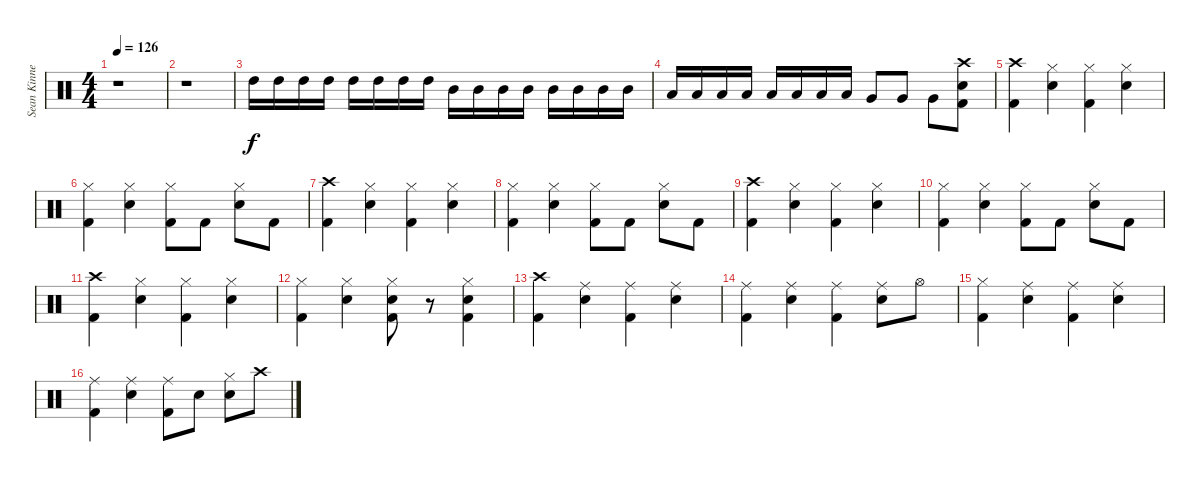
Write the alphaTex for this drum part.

\track ("Sean Kinney - Drums" "Sean Kinne") {instrument percussion}
\staff {score}
\articulation defaults
\ts (4 4)
\tempo 126
\clef neutral
\ks c
r.1{dy f} |
r.1 |
"High Tom (hit)".16 "High Tom (hit)".16 "High Tom (hit)".16 "High Tom (hit)".16 "High Tom (hit)".16 "High Tom (hit)".16 "High Tom (hit)".16 "High Tom (hit)".16 "Mid Tom (hit)".16 "Mid Tom (hit)".16 "Mid Tom (hit)".16 "Mid Tom (hit)".16 "Mid Tom (hit)".16 "Mid Tom (hit)".16 "Mid Tom (hit)".16 "Mid Tom (hit)".16 |
"Low Tom (hit)".16 "Low Tom (hit)".16 "Low Tom (hit)".16 "Low Tom (hit)".16 "Low Tom (hit)".16 "Low Tom (hit)".16 "Low Tom (hit)".16 "Low Tom (hit)".16 "Very Low Tom (hit)".8 "Very Low Tom (hit)".8 "Very Low Tom (hit)".8 ("Crash high (hit)" "Electric Snare (hit)" "Kick (hit) 2").8 |
("Crash high (hit)" "Kick (hit) 2").4 ("Hi-Hat (closed)" "Electric Snare (hit)").4 ("Hi-Hat (closed)" "Kick (hit) 2").4 ("Hi-Hat (closed)" "Electric Snare (hit)").4 |
("Hi-Hat (closed)" "Kick (hit) 2").4 ("Hi-Hat (closed)" "Electric Snare (hit)").4 ("Hi-Hat (closed)" "Kick (hit) 2").8 "Kick (hit) 2".8 ("Hi-Hat (closed)" "Electric Snare (hit)").8 "Kick (hit) 2".8 |
("Crash high (hit)" "Kick (hit) 2").4 ("Hi-Hat (closed)" "Electric Snare (hit)").4 ("Hi-Hat (closed)" "Kick (hit) 2").4 ("Hi-Hat (closed)" "Electric Snare (hit)").4 |
("Hi-Hat (closed)" "Kick (hit) 2").4 ("Hi-Hat (closed)" "Electric Snare (hit)").4 ("Hi-Hat (closed)" "Kick (hit) 2").8 "Kick (hit) 2".8 ("Hi-Hat (closed)" "Electric Snare (hit)").8 "Kick (hit) 2".8 |
("Crash high (hit)" "Kick (hit) 2").4 ("Hi-Hat (closed)" "Electric Snare (hit)").4 ("Hi-Hat (closed)" "Kick (hit) 2").4 ("Hi-Hat (closed)" "Electric Snare (hit)").4 |
("Hi-Hat (closed)" "Kick (hit) 2").4 ("Hi-Hat (closed)" "Electric Snare (hit)").4 ("Hi-Hat (closed)" "Kick (hit) 2").8 "Kick (hit) 2".8 ("Hi-Hat (closed)" "Electric Snare (hit)").8 "Kick (hit) 2".8 |
("Crash high (hit)" "Kick (hit) 2").4 ("Hi-Hat (closed)" "Electric Snare (hit)").4 ("Hi-Hat (closed)" "Kick (hit) 2").4 ("Hi-Hat (closed)" "Electric Snare (hit)").4 |
("Hi-Hat (closed)" "Kick (hit) 2").4 ("Hi-Hat (closed)" "Electric Snare (hit)").4 ("Hi-Hat (closed)" "Electric Snare (hit)" "Kick (hit) 2").8 r.8 ("Hi-Hat (closed)" "Electric Snare (hit)" "Kick (hit) 2").4 |
("Crash high (hit)" "Kick (hit) 2").4 ("Ride (middle)" "Electric Snare (hit)").4 ("Ride (middle)" "Kick (hit) 2").4 ("Ride (middle)" "Electric Snare (hit)").4 |
("Ride (middle)" "Kick (hit) 2").4 ("Ride (middle)" "Electric Snare (hit)").4 ("Ride (middle)" "Kick (hit) 2").4 ("Ride (middle)" "Electric Snare (hit)").8 "Hi-Hat (open)".8 |
("Hi-Hat (closed)" "Kick (hit) 2").4 ("Ride (middle)" "Electric Snare (hit)").4 ("Ride (middle)" "Kick (hit) 2").4 ("Ride (middle)" "Electric Snare (hit)").4 |
("Ride (middle)" "Kick (hit) 2").4 ("Ride (middle)" "Electric Snare (hit)").4 ("Ride (middle)" "Kick (hit) 2").8 "Electric Snare (hit)".8 ("Hi-Hat (closed)" "Electric Snare (hit)").8 "Crash high (hit)".8
